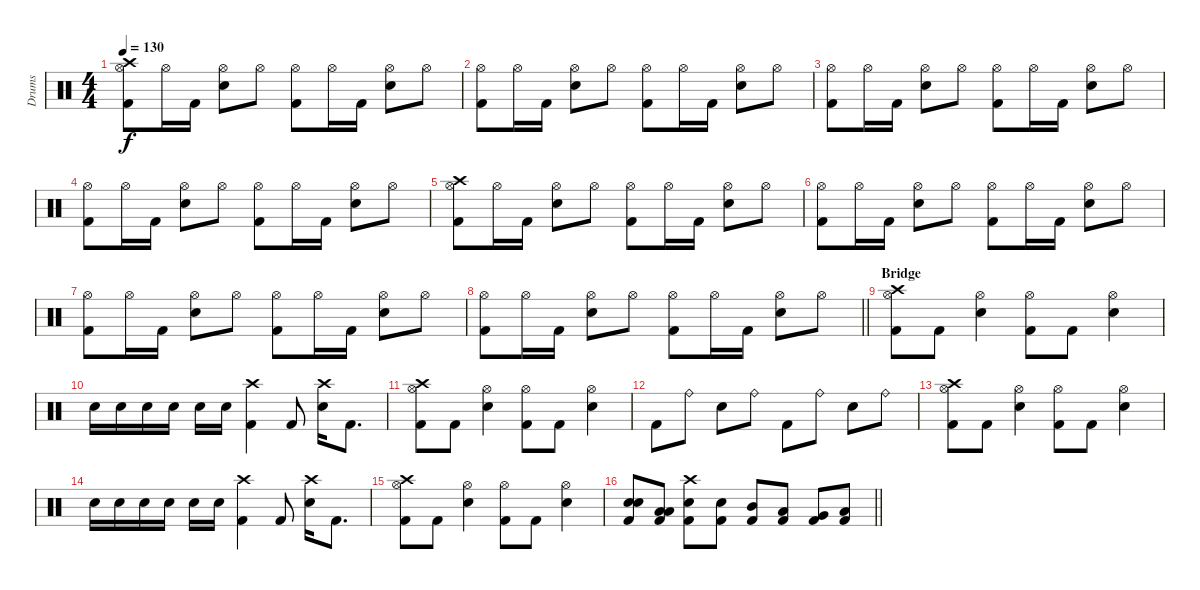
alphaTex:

\track ("Drums" "Drums") {instrument percussion}
\staff {score}
\articulation defaults
\ts (4 4)
\tempo 130
\clef neutral
\ks c
("Hi-Hat (open)" "Crash high (hit)" "Kick (hit) 2").8{dy f} "Hi-Hat (open)".16 "Kick (hit) 2".16 ("Hi-Hat (open)" "Snare (hit) 2").8 "Hi-Hat (open)".8 ("Hi-Hat (open)" "Kick (hit) 2").8 "Hi-Hat (open)".16 "Kick (hit) 2".16 ("Hi-Hat (open)" "Snare (hit) 2").8 "Hi-Hat (open)".8 |
("Hi-Hat (open)" "Kick (hit) 2").8 "Hi-Hat (open)".16 "Kick (hit) 2".16 ("Hi-Hat (open)" "Snare (hit) 2").8 "Hi-Hat (open)".8 ("Hi-Hat (open)" "Kick (hit) 2").8 "Hi-Hat (open)".16 "Kick (hit) 2".16 ("Hi-Hat (open)" "Snare (hit) 2").8 "Hi-Hat (open)".8 |
("Hi-Hat (open)" "Kick (hit) 2").8 "Hi-Hat (open)".16 "Kick (hit) 2".16 ("Hi-Hat (open)" "Snare (hit) 2").8 "Hi-Hat (open)".8 ("Hi-Hat (open)" "Kick (hit) 2").8 "Hi-Hat (open)".16 "Kick (hit) 2".16 ("Hi-Hat (open)" "Snare (hit) 2").8 "Hi-Hat (open)".8 |
("Hi-Hat (open)" "Kick (hit) 2").8 "Hi-Hat (open)".16 "Kick (hit) 2".16 ("Hi-Hat (open)" "Snare (hit) 2").8 "Hi-Hat (open)".8 ("Hi-Hat (open)" "Kick (hit) 2").8 "Hi-Hat (open)".16 "Kick (hit) 2".16 ("Hi-Hat (open)" "Snare (hit) 2").8 "Hi-Hat (open)".8 |
("Hi-Hat (open)" "Crash high (hit)" "Kick (hit) 2").8 "Hi-Hat (open)".16 "Kick (hit) 2".16 ("Hi-Hat (open)" "Snare (hit) 2").8 "Hi-Hat (open)".8 ("Hi-Hat (open)" "Kick (hit) 2").8 "Hi-Hat (open)".16 "Kick (hit) 2".16 ("Hi-Hat (open)" "Snare (hit) 2").8 "Hi-Hat (open)".8 |
("Hi-Hat (open)" "Kick (hit) 2").8 "Hi-Hat (open)".16 "Kick (hit) 2".16 ("Hi-Hat (open)" "Snare (hit) 2").8 "Hi-Hat (open)".8 ("Hi-Hat (open)" "Kick (hit) 2").8 "Hi-Hat (open)".16 "Kick (hit) 2".16 ("Hi-Hat (open)" "Snare (hit) 2").8 "Hi-Hat (open)".8 |
("Hi-Hat (open)" "Kick (hit) 2").8 "Hi-Hat (open)".16 "Kick (hit) 2".16 ("Hi-Hat (open)" "Snare (hit) 2").8 "Hi-Hat (open)".8 ("Hi-Hat (open)" "Kick (hit) 2").8 "Hi-Hat (open)".16 "Kick (hit) 2".16 ("Hi-Hat (open)" "Snare (hit) 2").8 "Hi-Hat (open)".8 |
\barLineRight lightlight
("Hi-Hat (open)" "Kick (hit) 2").8 "Hi-Hat (open)".16 "Kick (hit) 2".16 ("Hi-Hat (open)" "Snare (hit) 2").8 "Hi-Hat (open)".8 ("Hi-Hat (open)" "Kick (hit) 2").8 "Hi-Hat (open)".16 "Kick (hit) 2".16 ("Hi-Hat (open)" "Snare (hit) 2").8 "Hi-Hat (open)".8 |
\section ("" "Bridge")
("Hi-Hat (open)" "Crash high (hit)" "Kick (hit) 2").8 "Kick (hit) 2".8 ("Hi-Hat (open)" "Snare (hit) 2").4 ("Hi-Hat (open)" "Kick (hit) 2").8 "Kick (hit) 2".8 ("Hi-Hat (open)" "Snare (hit) 2").4 |
"Snare (hit) 2".16 "Snare (hit) 2".16 "Snare (hit) 2".16 "Snare (hit) 2".16 "Snare (hit) 2".16 "Snare (hit) 2".16 ("Crash high (hit)" "Kick (hit) 2").4 "Kick (hit) 2".8 ("Crash high (hit)" "Snare (hit) 2").16 "Kick (hit) 2".8{d} |
("Hi-Hat (open)" "Crash high (hit)" "Kick (hit) 2").8 "Kick (hit) 2".8 ("Hi-Hat (open)" "Snare (hit) 2").4 ("Hi-Hat (open)" "Kick (hit) 2").8 "Kick (hit) 2".8 ("Hi-Hat (open)" "Snare (hit) 2").4 |
"Kick (hit) 2".8 "Ride (bell)".8 "Snare (hit) 2".8 "Ride (bell)".8 "Kick (hit) 2".8 "Ride (bell)".8 "Snare (hit) 2".8 "Ride (bell)".8 |
("Hi-Hat (open)" "Crash high (hit)" "Kick (hit) 2").8 "Kick (hit) 2".8 ("Hi-Hat (open)" "Snare (hit) 2").4 ("Hi-Hat (open)" "Kick (hit) 2").8 "Kick (hit) 2".8 ("Hi-Hat (open)" "Snare (hit) 2").4 |
"Snare (hit) 2".16 "Snare (hit) 2".16 "Snare (hit) 2".16 "Snare (hit) 2".16 "Snare (hit) 2".16 "Snare (hit) 2".16 ("Crash high (hit)" "Kick (hit) 2").4 "Kick (hit) 2".8 ("Crash high (hit)" "Snare (hit) 2").16 "Kick (hit) 2".8{d} |
("Hi-Hat (open)" "Crash high (hit)" "Kick (hit) 2").8 "Kick (hit) 2".8 ("Hi-Hat (open)" "Snare (hit) 2").4 ("Hi-Hat (open)" "Kick (hit) 2").8 "Kick (hit) 2".8 ("Hi-Hat (open)" "Snare (hit) 2").4 |
\barLineRight lightlight
("Snare (hit) 2" "Snare (hit) 2" "Kick (hit) 2").8 ("Low Tom (hit)" "Low Tom (hit)" "Kick (hit) 2").8 ("Crash high (hit)" "Snare (hit) 2" "Kick (hit) 2").8 ("Snare (hit) 2" "Kick (hit) 2").8 ("Mid Tom (hit)" "Kick (hit) 2").8 ("Low Tom (hit)" "Kick (hit) 2").8 ("Very Low Tom (hit)" "Kick (hit) 2").8 ("Low Floor Tom (hit)" "Kick (hit) 2").8
